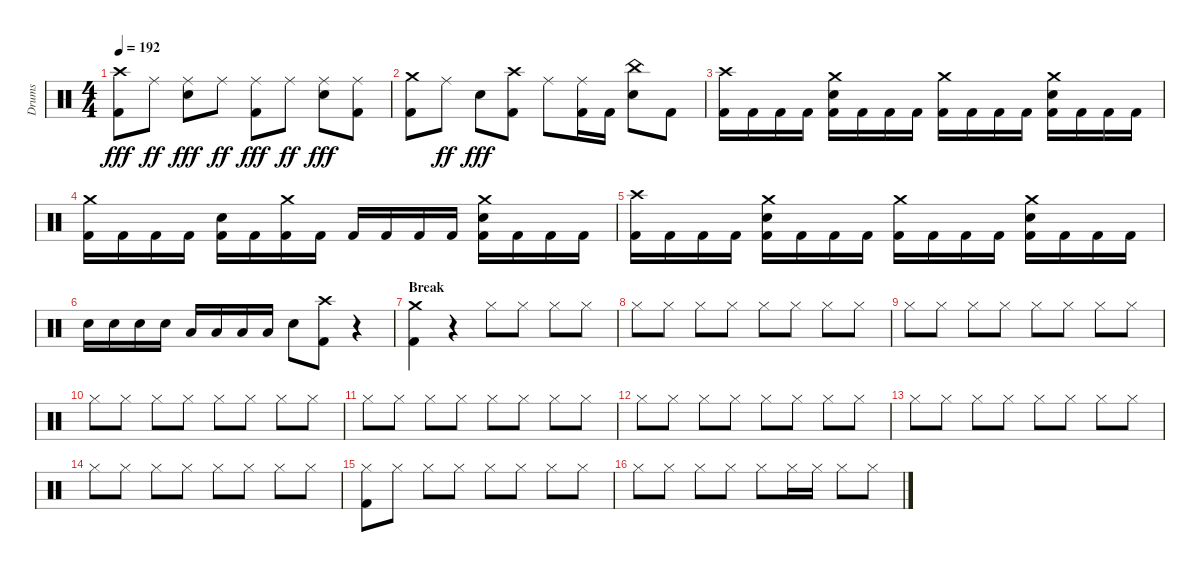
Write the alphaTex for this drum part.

\track ("Drums" "Drums") {instrument percussion}
\staff {score}
\articulation defaults
\ts (4 4)
\tempo 192
\clef neutral
\ks aminor
("Crash high (hit)" "Kick (hit) 2").8{dy fff} "Ride (middle)".8{dy ff} ("Snare (hit) 2" "Ride (middle)").8{dy fff} "Ride (middle)".8{dy ff} ("Ride (middle)" "Kick (hit) 2").8{dy fff} "Ride (middle)".8{dy ff} ("Snare (hit) 2" "Ride (middle)").8{dy fff} ("Ride (middle)" "Kick (hit) 2").8 |
("Kick (hit) 2" "Crash medium (hit)").8 "Ride (middle)".8{dy ff} "Snare (hit) 2".8{dy fff} ("Crash high (hit)" "Kick (hit) 2").8 "Ride (middle)".8 ("Ride (middle)" "Kick (hit) 2").16 "Kick (hit) 2".16 ("Snare (hit) 2" "China (hit)").8 "Kick (hit) 2".8 |
("Crash high (hit)" "Kick (hit) 2").16 "Kick (hit) 2".16 "Kick (hit) 2".16 "Kick (hit) 2".16 ("Crash medium (hit)" "Snare (hit) 2" "Kick (hit) 2").16 "Kick (hit) 2".16 "Kick (hit) 2".16 "Kick (hit) 2".16 ("Crash medium (hit)" "Kick (hit) 2").16 "Kick (hit) 2".16 "Kick (hit) 2".16 "Kick (hit) 2".16 ("Kick (hit) 2" "Crash medium (hit)" "Snare (hit) 2").16 "Kick (hit) 2".16 "Kick (hit) 2".16 "Kick (hit) 2".16 |
("Crash medium (hit)" "Kick (hit) 2").16 "Kick (hit) 2".16 "Kick (hit) 2".16 "Kick (hit) 2".16 ("Snare (hit) 2" "Kick (hit) 2").16 "Kick (hit) 2".16 ("Crash medium (hit)" "Kick (hit) 2").16 "Kick (hit) 2".16 "Kick (hit) 2".16 "Kick (hit) 2".16 "Kick (hit) 2".16 "Kick (hit) 2".16 ("Snare (hit) 2" "Kick (hit) 2" "Crash medium (hit)").16 "Kick (hit) 2".16 "Kick (hit) 2".16 "Kick (hit) 2".16 |
("Kick (hit) 2" "Crash high (hit)").16 "Kick (hit) 2".16 "Kick (hit) 2".16 "Kick (hit) 2".16 ("Kick (hit) 2" "Snare (hit) 2" "Crash medium (hit)").16 "Kick (hit) 2".16 "Kick (hit) 2".16 "Kick (hit) 2".16 ("Crash medium (hit)" "Kick (hit) 2").16 "Kick (hit) 2".16 "Kick (hit) 2".16 "Kick (hit) 2".16 ("Kick (hit) 2" "Snare (hit) 2" "Crash medium (hit)").16 "Kick (hit) 2".16 "Kick (hit) 2".16 "Kick (hit) 2".16 |
"Snare (hit) 2".16 "Snare (hit) 2".16 "Snare (hit) 2".16 "Snare (hit) 2".16 "Low Tom (hit)".16 "Low Tom (hit)".16 "Low Tom (hit)".16 "Low Tom (hit)".16 "Snare (hit) 2".8 ("Crash high (hit)" "Kick (hit) 2").8 r.4 |
\section ("" "Break")
("Crash medium (hit)" "Kick (hit) 2").4 r.4 "Hi-Hat (closed)".8 "Hi-Hat (closed)".8 "Hi-Hat (closed)".8 "Hi-Hat (closed)".8 |
"Hi-Hat (closed)".8 "Hi-Hat (closed)".8 "Hi-Hat (closed)".8 "Hi-Hat (closed)".8 "Hi-Hat (closed)".8 "Hi-Hat (closed)".8 "Hi-Hat (closed)".8 "Hi-Hat (closed)".8 |
"Hi-Hat (closed)".8 "Hi-Hat (closed)".8 "Hi-Hat (closed)".8 "Hi-Hat (closed)".8 "Hi-Hat (closed)".8 "Hi-Hat (closed)".8 "Hi-Hat (closed)".8 "Hi-Hat (closed)".8 |
"Hi-Hat (closed)".8 "Hi-Hat (closed)".8 "Hi-Hat (closed)".8 "Hi-Hat (closed)".8 "Hi-Hat (closed)".8 "Hi-Hat (closed)".8 "Hi-Hat (closed)".8 "Hi-Hat (closed)".8 |
"Hi-Hat (closed)".8 "Hi-Hat (closed)".8 "Hi-Hat (closed)".8 "Hi-Hat (closed)".8 "Hi-Hat (closed)".8 "Hi-Hat (closed)".8 "Hi-Hat (closed)".8 "Hi-Hat (closed)".8 |
"Hi-Hat (closed)".8 "Hi-Hat (closed)".8 "Hi-Hat (closed)".8 "Hi-Hat (closed)".8 "Hi-Hat (closed)".8 "Hi-Hat (closed)".8 "Hi-Hat (closed)".8 "Hi-Hat (closed)".8 |
"Hi-Hat (closed)".8 "Hi-Hat (closed)".8 "Hi-Hat (closed)".8 "Hi-Hat (closed)".8 "Hi-Hat (closed)".8 "Hi-Hat (closed)".8 "Hi-Hat (closed)".8 "Hi-Hat (closed)".8 |
"Hi-Hat (closed)".8 "Hi-Hat (closed)".8 "Hi-Hat (closed)".8 "Hi-Hat (closed)".8 "Hi-Hat (closed)".8 "Hi-Hat (closed)".8 "Hi-Hat (closed)".8 "Hi-Hat (closed)".8 |
("Kick (hit) 2" "Hi-Hat (closed)").8 "Hi-Hat (closed)".8 "Hi-Hat (closed)".8 "Hi-Hat (closed)".8 "Hi-Hat (closed)".8 "Hi-Hat (closed)".8 "Hi-Hat (closed)".8 "Hi-Hat (closed)".8 |
"Hi-Hat (closed)".8 "Hi-Hat (closed)".8 "Hi-Hat (closed)".8 "Hi-Hat (closed)".8 "Hi-Hat (closed)".8 "Hi-Hat (closed)".16 "Hi-Hat (closed)".16 "Hi-Hat (closed)".8 "Hi-Hat (closed)".8
